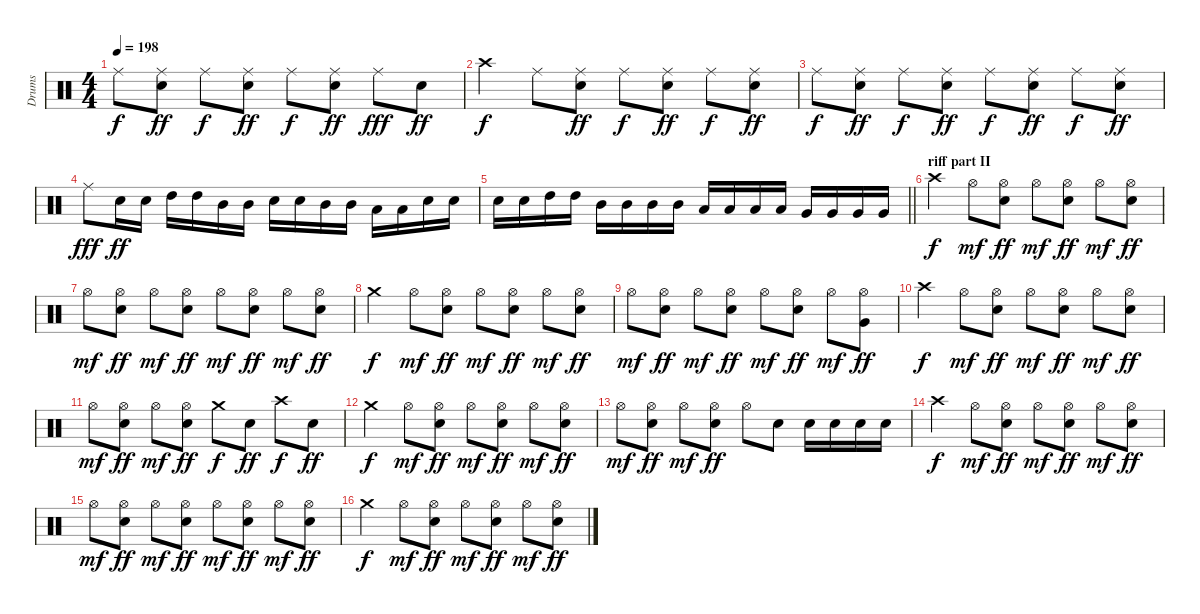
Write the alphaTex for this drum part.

\track ("Drums" "Drums") {instrument percussion}
\staff {score}
\articulation defaults
\ts (4 4)
\tempo 198
\clef neutral
\ks c "Ride (middle)".8{dy f}
("Ride (middle)" "Snare (hit) 2").8{dy ff} "Ride (middle)".8{dy f} ("Ride (middle)" "Snare (hit) 2").8{dy ff} "Ride (middle)".8{dy f} ("Ride (middle)" "Snare (hit) 2").8{dy ff} "Ride (middle)".8{dy fff} "Snare (hit) 2".8{dy ff} |
"Crash high (hit)".4{dy f} "Ride (middle)".8 ("Ride (middle)" "Snare (hit) 2").8{dy ff} "Ride (middle)".8{dy f} ("Ride (middle)" "Snare (hit) 2").8{dy ff} "Ride (middle)".8{dy f} ("Ride (middle)" "Snare (hit) 2").8{dy ff} |
"Ride (middle)".8{dy f} ("Ride (middle)" "Snare (hit) 2").8{dy ff} "Ride (middle)".8{dy f} ("Ride (middle)" "Snare (hit) 2").8{dy ff} "Ride (middle)".8{dy f} ("Ride (middle)" "Snare (hit) 2").8{dy ff} "Ride (middle)".8{dy f} ("Ride (middle)" "Snare (hit) 2").8{dy ff} |
"Ride (middle)".8{dy fff} "Snare (hit) 2".16{dy ff} "Snare (hit) 2".16 "High Tom (hit)".16 "High Tom (hit)".16 "Mid Tom (hit)".16 "Mid Tom (hit)".16 "Snare (hit) 2".16 "Snare (hit) 2".16 "Mid Tom (hit)".16 "Mid Tom (hit)".16 "Low Tom (hit)".16 "Low Tom (hit)".16 "Snare (hit) 2".16 "Snare (hit) 2".16 |
\barLineRight lightlight "Snare (hit) 2".16 "Snare (hit) 2".16 "High Tom (hit)".16 "High Tom (hit)".16 "Mid Tom (hit)".16 "Mid Tom (hit)".16 "Mid Tom (hit)".16 "Mid Tom (hit)".16 "Low Tom (hit)".16 "Low Tom (hit)".16 "Low Tom (hit)".16 "Low Tom (hit)".16 "Very Low Tom (hit)".16 "Very Low Tom (hit)".16 "Very Low Tom (hit)".16 "Very Low Tom (hit)".16
|
\section ("" "riff part II")
"Crash high (hit)".4{dy f} "Hi-Hat (open)".8{dy mf} ("Hi-Hat (open)" "Snare (hit) 2").8{dy ff} "Hi-Hat (open)".8{dy mf} ("Hi-Hat (open)" "Snare (hit) 2").8{dy ff} "Hi-Hat (open)".8{dy mf} ("Hi-Hat (open)" "Snare (hit) 2").8{dy ff} |
"Hi-Hat (open)".8{dy mf} ("Hi-Hat (open)" "Snare (hit) 2").8{dy ff} "Hi-Hat (open)".8{dy mf} ("Hi-Hat (open)" "Snare (hit) 2").8{dy ff} "Hi-Hat (open)".8{dy mf} ("Hi-Hat (open)" "Snare (hit) 2").8{dy ff} "Hi-Hat (open)".8{dy mf} ("Hi-Hat (open)" "Snare (hit) 2").8{dy ff} |
"Crash medium (hit)".4{dy f} "Hi-Hat (open)".8{dy mf} ("Hi-Hat (open)" "Snare (hit) 2").8{dy ff} "Hi-Hat (open)".8{dy mf} ("Hi-Hat (open)" "Snare (hit) 2").8{dy ff} "Hi-Hat (open)".8{dy mf} ("Hi-Hat (open)" "Snare (hit) 2").8{dy ff} |
"Hi-Hat (open)".8{dy mf} ("Hi-Hat (open)" "Snare (hit) 2").8{dy ff} "Hi-Hat (open)".8{dy mf} ("Hi-Hat (open)" "Snare (hit) 2").8{dy ff} "Hi-Hat (open)".8{dy mf} ("Hi-Hat (open)" "Snare (hit) 2").8{dy ff} "Hi-Hat (open)".8{dy mf} ("Hi-Hat (open)" "Very Low Tom (hit)").8{dy ff} |
"Crash high (hit)".4{dy f} "Hi-Hat (open)".8{dy mf} ("Hi-Hat (open)" "Snare (hit) 2").8{dy ff} "Hi-Hat (open)".8{dy mf} ("Hi-Hat (open)" "Snare (hit) 2").8{dy ff} "Hi-Hat (open)".8{dy mf} ("Hi-Hat (open)" "Snare (hit) 2").8{dy ff} |
"Hi-Hat (open)".8{dy mf} ("Hi-Hat (open)" "Snare (hit) 2").8{dy ff} "Hi-Hat (open)".8{dy mf} ("Hi-Hat (open)" "Snare (hit) 2").8{dy ff} "Crash medium (hit)".8{dy f} "Snare (hit) 2".8{dy ff} "Crash high (hit)".8{dy f} "Snare (hit) 2".8{dy ff} |
"Crash medium (hit)".4{dy f} "Hi-Hat (open)".8{dy mf} ("Hi-Hat (open)" "Snare (hit) 2").8{dy ff} "Hi-Hat (open)".8{dy mf} ("Hi-Hat (open)" "Snare (hit) 2").8{dy ff} "Hi-Hat (open)".8{dy mf} ("Hi-Hat (open)" "Snare (hit) 2").8{dy ff} |
"Hi-Hat (open)".8{dy mf} ("Hi-Hat (open)" "Snare (hit) 2").8{dy ff} "Hi-Hat (open)".8{dy mf} ("Hi-Hat (open)" "Snare (hit) 2").8{dy ff} "Hi-Hat (open)".8 "Snare (hit) 2".8 "Snare (hit) 2".16 "Snare (hit) 2".16 "Snare (hit) 2".16 "Snare (hit) 2".16 |
"Crash high (hit)".4{dy f} "Hi-Hat (open)".8{dy mf} ("Hi-Hat (open)" "Snare (hit) 2").8{dy ff} "Hi-Hat (open)".8{dy mf} ("Hi-Hat (open)" "Snare (hit) 2").8{dy ff} "Hi-Hat (open)".8{dy mf} ("Hi-Hat (open)" "Snare (hit) 2").8{dy ff} |
"Hi-Hat (open)".8{dy mf} ("Hi-Hat (open)" "Snare (hit) 2").8{dy ff} "Hi-Hat (open)".8{dy mf} ("Hi-Hat (open)" "Snare (hit) 2").8{dy ff} "Hi-Hat (open)".8{dy mf} ("Hi-Hat (open)" "Snare (hit) 2").8{dy ff} "Hi-Hat (open)".8{dy mf} ("Hi-Hat (open)" "Snare (hit) 2").8{dy ff} |
"Crash medium (hit)".4{dy f} "Hi-Hat (open)".8{dy mf} ("Hi-Hat (open)" "Snare (hit) 2").8{dy ff} "Hi-Hat (open)".8{dy mf} ("Hi-Hat (open)" "Snare (hit) 2").8{dy ff} "Hi-Hat (open)".8{dy mf} ("Hi-Hat (open)" "Snare (hit) 2").8{dy ff}
